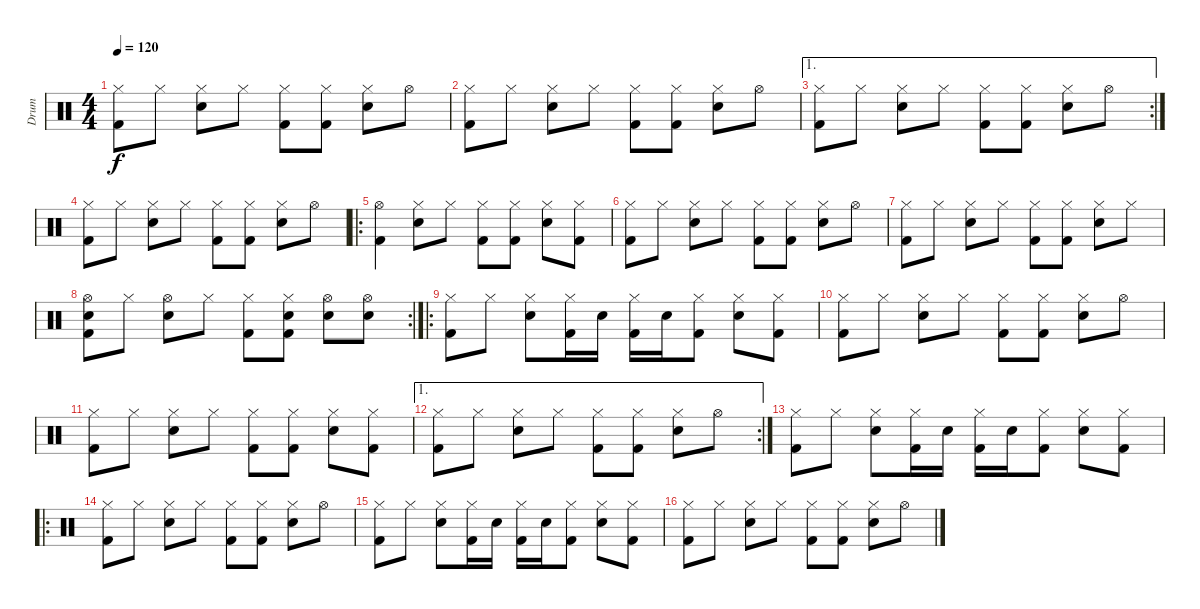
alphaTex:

\track ("Drum" "Drum") {instrument percussion}
\staff {score}
\articulation defaults
\ts (4 4)
\tempo 120
\clef neutral
\ks c
("Hi-Hat (closed)" "Kick (hit) 2").8{dy f} "Hi-Hat (closed)".8 ("Hi-Hat (closed)" "Snare (hit) 2").8 "Hi-Hat (closed)".8 ("Hi-Hat (closed)" "Kick (hit) 2").8 ("Hi-Hat (closed)" "Kick (hit) 2").8 ("Hi-Hat (closed)" "Snare (hit) 2").8 "Hi-Hat (open)".8 |
("Hi-Hat (closed)" "Kick (hit) 2").8 "Hi-Hat (closed)".8 ("Hi-Hat (closed)" "Snare (hit) 2").8 "Hi-Hat (closed)".8 ("Hi-Hat (closed)" "Kick (hit) 2").8 ("Hi-Hat (closed)" "Kick (hit) 2").8 ("Hi-Hat (closed)" "Snare (hit) 2").8 "Hi-Hat (open)".8 |
\ae 1
\rc 2
("Hi-Hat (closed)" "Kick (hit) 2").8 "Hi-Hat (closed)".8 ("Hi-Hat (closed)" "Snare (hit) 2").8 "Hi-Hat (closed)".8 ("Hi-Hat (closed)" "Kick (hit) 2").8 ("Hi-Hat (closed)" "Kick (hit) 2").8 ("Hi-Hat (closed)" "Snare (hit) 2").8 "Hi-Hat (open)".8 |
("Hi-Hat (closed)" "Kick (hit) 2").8 "Hi-Hat (closed)".8 ("Hi-Hat (closed)" "Snare (hit) 2").8 "Hi-Hat (closed)".8 ("Hi-Hat (closed)" "Kick (hit) 2").8 ("Hi-Hat (closed)" "Kick (hit) 2").8 ("Hi-Hat (closed)" "Snare (hit) 2").8 "Hi-Hat (open)".8 |
\ro
("Hi-Hat (open)" "Kick (hit) 2").4 ("Hi-Hat (closed)" "Snare (hit) 2").8 "Hi-Hat (closed)".8 ("Hi-Hat (closed)" "Kick (hit) 2").8 ("Hi-Hat (closed)" "Kick (hit) 2").8 ("Hi-Hat (closed)" "Snare (hit) 2").8 ("Hi-Hat (closed)" "Kick (hit) 2").8 |
("Hi-Hat (closed)" "Kick (hit) 2").8 "Hi-Hat (closed)".8 ("Hi-Hat (closed)" "Snare (hit) 2").8 "Hi-Hat (closed)".8 ("Hi-Hat (closed)" "Kick (hit) 2").8 ("Hi-Hat (closed)" "Kick (hit) 2").8 ("Hi-Hat (closed)" "Snare (hit) 2").8 "Hi-Hat (open)".8 |
("Hi-Hat (closed)" "Kick (hit) 2").8 "Hi-Hat (closed)".8 ("Hi-Hat (closed)" "Snare (hit) 2").8 "Hi-Hat (closed)".8 ("Hi-Hat (closed)" "Kick (hit) 2").8 ("Hi-Hat (closed)" "Kick (hit) 2").8 ("Hi-Hat (closed)" "Snare (hit) 2").8 "Hi-Hat (closed)".8 |
\rc 2
("Hi-Hat (open)" "Snare (hit) 2" "Kick (hit) 2").8 "Hi-Hat (closed)".8 ("Hi-Hat (open)" "Snare (hit) 2").8 "Hi-Hat (closed)".8 ("Hi-Hat (closed)" "Kick (hit) 2").8 ("Hi-Hat (closed)" "Snare (hit) 2" "Kick (hit) 2").8 ("Hi-Hat (open)" "Snare (hit) 2").8 ("Hi-Hat (open)" "Snare (hit) 2").8 |
\ro
("Hi-Hat (closed)" "Kick (hit) 2").8 "Hi-Hat (closed)".8 ("Hi-Hat (closed)" "Snare (hit) 2").8 ("Hi-Hat (closed)" "Kick (hit) 2").16 "Snare (hit) 2".16 ("Hi-Hat (closed)" "Kick (hit) 2").16 "Snare (hit) 2".16 ("Hi-Hat (closed)" "Kick (hit) 2").8 ("Hi-Hat (closed)" "Snare (hit) 2").8 ("Hi-Hat (closed)" "Kick (hit) 2").8 |
("Hi-Hat (closed)" "Kick (hit) 2").8 "Hi-Hat (closed)".8 ("Hi-Hat (closed)" "Snare (hit) 2").8 "Hi-Hat (closed)".8 ("Hi-Hat (closed)" "Kick (hit) 2").8 ("Hi-Hat (closed)" "Kick (hit) 2").8 ("Hi-Hat (closed)" "Snare (hit) 2").8 "Hi-Hat (open)".8 |
("Hi-Hat (closed)" "Kick (hit) 2").8 "Hi-Hat (closed)".8 ("Hi-Hat (closed)" "Snare (hit) 2").8 "Hi-Hat (closed)".8 ("Hi-Hat (closed)" "Kick (hit) 2").8 ("Hi-Hat (closed)" "Kick (hit) 2").8 ("Hi-Hat (closed)" "Snare (hit) 2").8 ("Hi-Hat (closed)" "Kick (hit) 2").8 |
\ae 1
\rc 2
("Hi-Hat (closed)" "Kick (hit) 2").8 "Hi-Hat (closed)".8 ("Hi-Hat (closed)" "Snare (hit) 2").8 "Hi-Hat (closed)".8 ("Hi-Hat (closed)" "Kick (hit) 2").8 ("Hi-Hat (closed)" "Kick (hit) 2").8 ("Hi-Hat (closed)" "Snare (hit) 2").8 "Hi-Hat (open)".8 |
("Hi-Hat (closed)" "Kick (hit) 2").8 "Hi-Hat (closed)".8 ("Hi-Hat (closed)" "Snare (hit) 2").8 ("Hi-Hat (closed)" "Kick (hit) 2").16 "Snare (hit) 2".16 ("Hi-Hat (closed)" "Kick (hit) 2").16 "Snare (hit) 2".16 ("Hi-Hat (closed)" "Kick (hit) 2").8 ("Hi-Hat (closed)" "Snare (hit) 2").8 ("Hi-Hat (closed)" "Kick (hit) 2").8 |
\ro
("Hi-Hat (closed)" "Kick (hit) 2").8 "Hi-Hat (closed)".8 ("Hi-Hat (closed)" "Snare (hit) 2").8 "Hi-Hat (closed)".8 ("Hi-Hat (closed)" "Kick (hit) 2").8 ("Hi-Hat (closed)" "Kick (hit) 2").8 ("Hi-Hat (closed)" "Snare (hit) 2").8 "Hi-Hat (open)".8 |
("Hi-Hat (closed)" "Kick (hit) 2").8 "Hi-Hat (closed)".8 ("Hi-Hat (closed)" "Snare (hit) 2").8 ("Hi-Hat (closed)" "Kick (hit) 2").16 "Snare (hit) 2".16 ("Hi-Hat (closed)" "Kick (hit) 2").16 "Snare (hit) 2".16 ("Hi-Hat (closed)" "Kick (hit) 2").8 ("Hi-Hat (closed)" "Snare (hit) 2").8 ("Hi-Hat (closed)" "Kick (hit) 2").8 |
("Hi-Hat (closed)" "Kick (hit) 2").8 "Hi-Hat (closed)".8 ("Hi-Hat (closed)" "Snare (hit) 2").8 "Hi-Hat (closed)".8 ("Hi-Hat (closed)" "Kick (hit) 2").8 ("Hi-Hat (closed)" "Kick (hit) 2").8 ("Hi-Hat (closed)" "Snare (hit) 2").8 "Hi-Hat (open)".8
